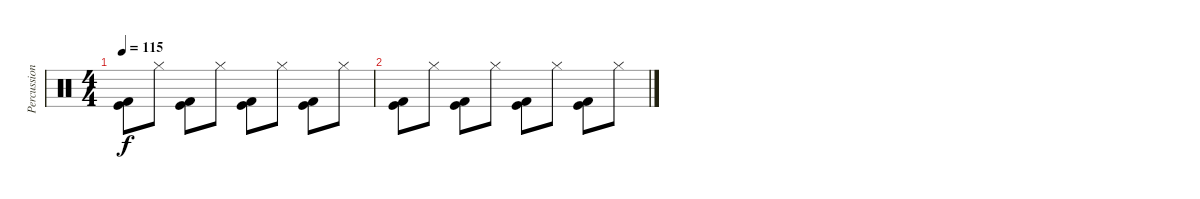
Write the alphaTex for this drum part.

\track ("Percussion" "Percussion") {instrument percussion}
\staff {score}
\articulation defaults
\ts (4 4)
\tempo 115
\clef neutral
\ks c
("Kick (hit) 2" "Kick (hit)").8{dy f volume 0} "Hi-Hat (closed)".8 ("Kick (hit) 2" "Kick (hit)").8 "Hi-Hat (closed)".8 ("Kick (hit) 2" "Kick (hit)").8 "Hi-Hat (closed)".8 ("Kick (hit) 2" "Kick (hit)").8 "Hi-Hat (closed)".8 |
("Kick (hit) 2" "Kick (hit)").8 "Hi-Hat (closed)".8 ("Kick (hit) 2" "Kick (hit)").8 "Hi-Hat (closed)".8 ("Kick (hit) 2" "Kick (hit)").8 "Hi-Hat (closed)".8 ("Kick (hit) 2" "Kick (hit)").8 "Hi-Hat (closed)".8
